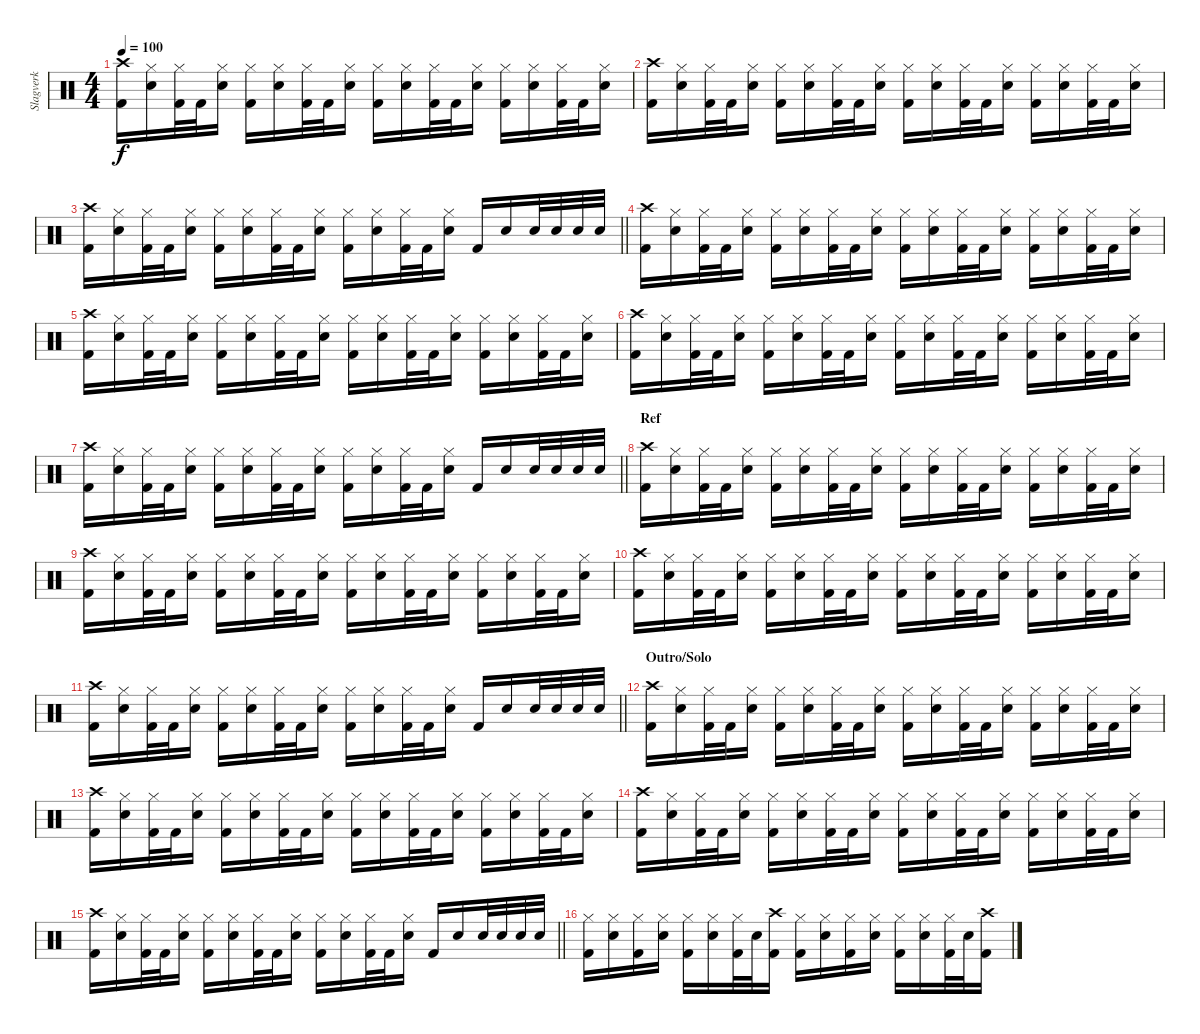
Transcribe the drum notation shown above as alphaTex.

\track ("Slagverk" "Slagverk") {instrument percussion}
\staff {score}
\articulation defaults
\ts (4 4)
\tempo 100
\clef neutral
\ks c
("Kick (hit) 2" "Crash high (hit)").16{dy f} ("Snare (hit) 2" "Hi-Hat (closed)").16 ("Kick (hit) 2" "Hi-Hat (closed)").32 "Kick (hit) 2".32 ("Snare (hit) 2" "Hi-Hat (closed)").16 ("Kick (hit) 2" "Hi-Hat (closed)").16 ("Snare (hit) 2" "Hi-Hat (closed)").16 ("Kick (hit) 2" "Hi-Hat (closed)").32 "Kick (hit) 2".32 ("Snare (hit) 2" "Hi-Hat (closed)").16 ("Kick (hit) 2" "Hi-Hat (closed)").16 ("Snare (hit) 2" "Hi-Hat (closed)").16 ("Kick (hit) 2" "Hi-Hat (closed)").32 "Kick (hit) 2".32 ("Snare (hit) 2" "Hi-Hat (closed)").16 ("Kick (hit) 2" "Hi-Hat (closed)").16 ("Snare (hit) 2" "Hi-Hat (closed)").16 ("Kick (hit) 2" "Hi-Hat (closed)").32 "Kick (hit) 2".32 ("Snare (hit) 2" "Hi-Hat (closed)").16 |
("Kick (hit) 2" "Crash high (hit)").16 ("Snare (hit) 2" "Hi-Hat (closed)").16 ("Kick (hit) 2" "Hi-Hat (closed)").32 "Kick (hit) 2".32 ("Snare (hit) 2" "Hi-Hat (closed)").16 ("Kick (hit) 2" "Hi-Hat (closed)").16 ("Snare (hit) 2" "Hi-Hat (closed)").16 ("Kick (hit) 2" "Hi-Hat (closed)").32 "Kick (hit) 2".32 ("Snare (hit) 2" "Hi-Hat (closed)").16 ("Kick (hit) 2" "Hi-Hat (closed)").16 ("Snare (hit) 2" "Hi-Hat (closed)").16 ("Kick (hit) 2" "Hi-Hat (closed)").32 "Kick (hit) 2".32 ("Snare (hit) 2" "Hi-Hat (closed)").16 ("Kick (hit) 2" "Hi-Hat (closed)").16 ("Snare (hit) 2" "Hi-Hat (closed)").16 ("Kick (hit) 2" "Hi-Hat (closed)").32 "Kick (hit) 2".32 ("Snare (hit) 2" "Hi-Hat (closed)").16 |
\barLineRight lightlight
("Kick (hit) 2" "Crash high (hit)").16 ("Snare (hit) 2" "Hi-Hat (closed)").16 ("Kick (hit) 2" "Hi-Hat (closed)").32 "Kick (hit) 2".32 ("Snare (hit) 2" "Hi-Hat (closed)").16 ("Kick (hit) 2" "Hi-Hat (closed)").16 ("Snare (hit) 2" "Hi-Hat (closed)").16 ("Kick (hit) 2" "Hi-Hat (closed)").32 "Kick (hit) 2".32 ("Snare (hit) 2" "Hi-Hat (closed)").16 ("Kick (hit) 2" "Hi-Hat (closed)").16 ("Snare (hit) 2" "Hi-Hat (closed)").16 ("Kick (hit) 2" "Hi-Hat (closed)").32 "Kick (hit) 2".32 ("Snare (hit) 2" "Hi-Hat (closed)").16 "Kick (hit) 2".16 "Snare (hit) 2".16 "Snare (hit) 2".32 "Snare (hit) 2".32 "Snare (hit) 2".32 "Snare (hit) 2".32 |
("Kick (hit) 2" "Crash high (hit)").16 ("Snare (hit) 2" "Hi-Hat (closed)").16 ("Kick (hit) 2" "Hi-Hat (closed)").32 "Kick (hit) 2".32 ("Snare (hit) 2" "Hi-Hat (closed)").16 ("Kick (hit) 2" "Hi-Hat (closed)").16 ("Snare (hit) 2" "Hi-Hat (closed)").16 ("Kick (hit) 2" "Hi-Hat (closed)").32 "Kick (hit) 2".32 ("Snare (hit) 2" "Hi-Hat (closed)").16 ("Kick (hit) 2" "Hi-Hat (closed)").16 ("Snare (hit) 2" "Hi-Hat (closed)").16 ("Kick (hit) 2" "Hi-Hat (closed)").32 "Kick (hit) 2".32 ("Snare (hit) 2" "Hi-Hat (closed)").16 ("Kick (hit) 2" "Hi-Hat (closed)").16 ("Snare (hit) 2" "Hi-Hat (closed)").16 ("Kick (hit) 2" "Hi-Hat (closed)").32 "Kick (hit) 2".32 ("Snare (hit) 2" "Hi-Hat (closed)").16 |
("Kick (hit) 2" "Crash high (hit)").16 ("Snare (hit) 2" "Hi-Hat (closed)").16 ("Kick (hit) 2" "Hi-Hat (closed)").32 "Kick (hit) 2".32 ("Snare (hit) 2" "Hi-Hat (closed)").16 ("Kick (hit) 2" "Hi-Hat (closed)").16 ("Snare (hit) 2" "Hi-Hat (closed)").16 ("Kick (hit) 2" "Hi-Hat (closed)").32 "Kick (hit) 2".32 ("Snare (hit) 2" "Hi-Hat (closed)").16 ("Kick (hit) 2" "Hi-Hat (closed)").16 ("Snare (hit) 2" "Hi-Hat (closed)").16 ("Kick (hit) 2" "Hi-Hat (closed)").32 "Kick (hit) 2".32 ("Snare (hit) 2" "Hi-Hat (closed)").16 ("Kick (hit) 2" "Hi-Hat (closed)").16 ("Snare (hit) 2" "Hi-Hat (closed)").16 ("Kick (hit) 2" "Hi-Hat (closed)").32 "Kick (hit) 2".32 ("Snare (hit) 2" "Hi-Hat (closed)").16 |
("Kick (hit) 2" "Crash high (hit)").16 ("Snare (hit) 2" "Hi-Hat (closed)").16 ("Kick (hit) 2" "Hi-Hat (closed)").32 "Kick (hit) 2".32 ("Snare (hit) 2" "Hi-Hat (closed)").16 ("Kick (hit) 2" "Hi-Hat (closed)").16 ("Snare (hit) 2" "Hi-Hat (closed)").16 ("Kick (hit) 2" "Hi-Hat (closed)").32 "Kick (hit) 2".32 ("Snare (hit) 2" "Hi-Hat (closed)").16 ("Kick (hit) 2" "Hi-Hat (closed)").16 ("Snare (hit) 2" "Hi-Hat (closed)").16 ("Kick (hit) 2" "Hi-Hat (closed)").32 "Kick (hit) 2".32 ("Snare (hit) 2" "Hi-Hat (closed)").16 ("Kick (hit) 2" "Hi-Hat (closed)").16 ("Snare (hit) 2" "Hi-Hat (closed)").16 ("Kick (hit) 2" "Hi-Hat (closed)").32 "Kick (hit) 2".32 ("Snare (hit) 2" "Hi-Hat (closed)").16 |
\barLineRight lightlight
("Kick (hit) 2" "Crash high (hit)").16 ("Snare (hit) 2" "Hi-Hat (closed)").16 ("Kick (hit) 2" "Hi-Hat (closed)").32 "Kick (hit) 2".32 ("Snare (hit) 2" "Hi-Hat (closed)").16 ("Kick (hit) 2" "Hi-Hat (closed)").16 ("Snare (hit) 2" "Hi-Hat (closed)").16 ("Kick (hit) 2" "Hi-Hat (closed)").32 "Kick (hit) 2".32 ("Snare (hit) 2" "Hi-Hat (closed)").16 ("Kick (hit) 2" "Hi-Hat (closed)").16 ("Snare (hit) 2" "Hi-Hat (closed)").16 ("Kick (hit) 2" "Hi-Hat (closed)").32 "Kick (hit) 2".32 ("Snare (hit) 2" "Hi-Hat (closed)").16 "Kick (hit) 2".16 "Snare (hit) 2".16 "Snare (hit) 2".32 "Snare (hit) 2".32 "Snare (hit) 2".32 "Snare (hit) 2".32 |
\section ("" "Ref")
("Kick (hit) 2" "Crash high (hit)").16 ("Snare (hit) 2" "Hi-Hat (closed)").16 ("Kick (hit) 2" "Hi-Hat (closed)").32 "Kick (hit) 2".32 ("Snare (hit) 2" "Hi-Hat (closed)").16 ("Kick (hit) 2" "Hi-Hat (closed)").16 ("Snare (hit) 2" "Hi-Hat (closed)").16 ("Kick (hit) 2" "Hi-Hat (closed)").32 "Kick (hit) 2".32 ("Snare (hit) 2" "Hi-Hat (closed)").16 ("Kick (hit) 2" "Hi-Hat (closed)").16 ("Snare (hit) 2" "Hi-Hat (closed)").16 ("Kick (hit) 2" "Hi-Hat (closed)").32 "Kick (hit) 2".32 ("Snare (hit) 2" "Hi-Hat (closed)").16 ("Kick (hit) 2" "Hi-Hat (closed)").16 ("Snare (hit) 2" "Hi-Hat (closed)").16 ("Kick (hit) 2" "Hi-Hat (closed)").32 "Kick (hit) 2".32 ("Snare (hit) 2" "Hi-Hat (closed)").16 |
("Kick (hit) 2" "Crash high (hit)").16 ("Snare (hit) 2" "Hi-Hat (closed)").16 ("Kick (hit) 2" "Hi-Hat (closed)").32 "Kick (hit) 2".32 ("Snare (hit) 2" "Hi-Hat (closed)").16 ("Kick (hit) 2" "Hi-Hat (closed)").16 ("Snare (hit) 2" "Hi-Hat (closed)").16 ("Kick (hit) 2" "Hi-Hat (closed)").32 "Kick (hit) 2".32 ("Snare (hit) 2" "Hi-Hat (closed)").16 ("Kick (hit) 2" "Hi-Hat (closed)").16 ("Snare (hit) 2" "Hi-Hat (closed)").16 ("Kick (hit) 2" "Hi-Hat (closed)").32 "Kick (hit) 2".32 ("Snare (hit) 2" "Hi-Hat (closed)").16 ("Kick (hit) 2" "Hi-Hat (closed)").16 ("Snare (hit) 2" "Hi-Hat (closed)").16 ("Kick (hit) 2" "Hi-Hat (closed)").32 "Kick (hit) 2".32 ("Snare (hit) 2" "Hi-Hat (closed)").16 |
("Kick (hit) 2" "Crash high (hit)").16 ("Snare (hit) 2" "Hi-Hat (closed)").16 ("Kick (hit) 2" "Hi-Hat (closed)").32 "Kick (hit) 2".32 ("Snare (hit) 2" "Hi-Hat (closed)").16 ("Kick (hit) 2" "Hi-Hat (closed)").16 ("Snare (hit) 2" "Hi-Hat (closed)").16 ("Kick (hit) 2" "Hi-Hat (closed)").32 "Kick (hit) 2".32 ("Snare (hit) 2" "Hi-Hat (closed)").16 ("Kick (hit) 2" "Hi-Hat (closed)").16 ("Snare (hit) 2" "Hi-Hat (closed)").16 ("Kick (hit) 2" "Hi-Hat (closed)").32 "Kick (hit) 2".32 ("Snare (hit) 2" "Hi-Hat (closed)").16 ("Kick (hit) 2" "Hi-Hat (closed)").16 ("Snare (hit) 2" "Hi-Hat (closed)").16 ("Kick (hit) 2" "Hi-Hat (closed)").32 "Kick (hit) 2".32 ("Snare (hit) 2" "Hi-Hat (closed)").16 |
\barLineRight lightlight
("Kick (hit) 2" "Crash high (hit)").16 ("Snare (hit) 2" "Hi-Hat (closed)").16 ("Kick (hit) 2" "Hi-Hat (closed)").32 "Kick (hit) 2".32 ("Snare (hit) 2" "Hi-Hat (closed)").16 ("Kick (hit) 2" "Hi-Hat (closed)").16 ("Snare (hit) 2" "Hi-Hat (closed)").16 ("Kick (hit) 2" "Hi-Hat (closed)").32 "Kick (hit) 2".32 ("Snare (hit) 2" "Hi-Hat (closed)").16 ("Kick (hit) 2" "Hi-Hat (closed)").16 ("Snare (hit) 2" "Hi-Hat (closed)").16 ("Kick (hit) 2" "Hi-Hat (closed)").32 "Kick (hit) 2".32 ("Snare (hit) 2" "Hi-Hat (closed)").16 "Kick (hit) 2".16 "Snare (hit) 2".16 "Snare (hit) 2".32 "Snare (hit) 2".32 "Snare (hit) 2".32 "Snare (hit) 2".32 |
\section ("" "Outro/Solo")
("Kick (hit) 2" "Crash high (hit)").16 ("Snare (hit) 2" "Hi-Hat (closed)").16 ("Kick (hit) 2" "Hi-Hat (closed)").32 "Kick (hit) 2".32 ("Snare (hit) 2" "Hi-Hat (closed)").16 ("Kick (hit) 2" "Hi-Hat (closed)").16 ("Snare (hit) 2" "Hi-Hat (closed)").16 ("Kick (hit) 2" "Hi-Hat (closed)").32 "Kick (hit) 2".32 ("Snare (hit) 2" "Hi-Hat (closed)").16 ("Kick (hit) 2" "Hi-Hat (closed)").16 ("Snare (hit) 2" "Hi-Hat (closed)").16 ("Kick (hit) 2" "Hi-Hat (closed)").32 "Kick (hit) 2".32 ("Snare (hit) 2" "Hi-Hat (closed)").16 ("Kick (hit) 2" "Hi-Hat (closed)").16 ("Snare (hit) 2" "Hi-Hat (closed)").16 ("Kick (hit) 2" "Hi-Hat (closed)").32 "Kick (hit) 2".32 ("Snare (hit) 2" "Hi-Hat (closed)").16 |
("Kick (hit) 2" "Crash high (hit)").16 ("Snare (hit) 2" "Hi-Hat (closed)").16 ("Kick (hit) 2" "Hi-Hat (closed)").32 "Kick (hit) 2".32 ("Snare (hit) 2" "Hi-Hat (closed)").16 ("Kick (hit) 2" "Hi-Hat (closed)").16 ("Snare (hit) 2" "Hi-Hat (closed)").16 ("Kick (hit) 2" "Hi-Hat (closed)").32 "Kick (hit) 2".32 ("Snare (hit) 2" "Hi-Hat (closed)").16 ("Kick (hit) 2" "Hi-Hat (closed)").16 ("Snare (hit) 2" "Hi-Hat (closed)").16 ("Kick (hit) 2" "Hi-Hat (closed)").32 "Kick (hit) 2".32 ("Snare (hit) 2" "Hi-Hat (closed)").16 ("Kick (hit) 2" "Hi-Hat (closed)").16 ("Snare (hit) 2" "Hi-Hat (closed)").16 ("Kick (hit) 2" "Hi-Hat (closed)").32 "Kick (hit) 2".32 ("Snare (hit) 2" "Hi-Hat (closed)").16 |
("Kick (hit) 2" "Crash high (hit)").16 ("Snare (hit) 2" "Hi-Hat (closed)").16 ("Kick (hit) 2" "Hi-Hat (closed)").32 "Kick (hit) 2".32 ("Snare (hit) 2" "Hi-Hat (closed)").16 ("Kick (hit) 2" "Hi-Hat (closed)").16 ("Snare (hit) 2" "Hi-Hat (closed)").16 ("Kick (hit) 2" "Hi-Hat (closed)").32 "Kick (hit) 2".32 ("Snare (hit) 2" "Hi-Hat (closed)").16 ("Kick (hit) 2" "Hi-Hat (closed)").16 ("Snare (hit) 2" "Hi-Hat (closed)").16 ("Kick (hit) 2" "Hi-Hat (closed)").32 "Kick (hit) 2".32 ("Snare (hit) 2" "Hi-Hat (closed)").16 ("Kick (hit) 2" "Hi-Hat (closed)").16 ("Snare (hit) 2" "Hi-Hat (closed)").16 ("Kick (hit) 2" "Hi-Hat (closed)").32 "Kick (hit) 2".32 ("Snare (hit) 2" "Hi-Hat (closed)").16 |
\barLineRight lightlight
("Kick (hit) 2" "Crash high (hit)").16 ("Snare (hit) 2" "Hi-Hat (closed)").16 ("Kick (hit) 2" "Hi-Hat (closed)").32 "Kick (hit) 2".32 ("Snare (hit) 2" "Hi-Hat (closed)").16 ("Kick (hit) 2" "Hi-Hat (closed)").16 ("Snare (hit) 2" "Hi-Hat (closed)").16 ("Kick (hit) 2" "Hi-Hat (closed)").32 "Kick (hit) 2".32 ("Snare (hit) 2" "Hi-Hat (closed)").16 ("Kick (hit) 2" "Hi-Hat (closed)").16 ("Snare (hit) 2" "Hi-Hat (closed)").16 ("Kick (hit) 2" "Hi-Hat (closed)").32 "Kick (hit) 2".32 ("Snare (hit) 2" "Hi-Hat (closed)").16 "Kick (hit) 2".16 "Snare (hit) 2".16 "Snare (hit) 2".32 "Snare (hit) 2".32 "Snare (hit) 2".32 "Snare (hit) 2".32 |
("Kick (hit) 2" "Hi-Hat (closed)").16 ("Snare (hit) 2" "Hi-Hat (closed)").16 ("Kick (hit) 2" "Hi-Hat (closed)").16 ("Snare (hit) 2" "Hi-Hat (closed)").16 ("Kick (hit) 2" "Hi-Hat (closed)").16 ("Snare (hit) 2" "Hi-Hat (closed)").16 ("Kick (hit) 2" "Hi-Hat (closed)").32 "Snare (hit) 2".32 ("Kick (hit) 2" "Crash high (hit)").16 ("Kick (hit) 2" "Hi-Hat (closed)").16 ("Snare (hit) 2" "Hi-Hat (closed)").16 ("Kick (hit) 2" "Hi-Hat (closed)").16 ("Snare (hit) 2" "Hi-Hat (closed)").16 ("Kick (hit) 2" "Hi-Hat (closed)").16 ("Snare (hit) 2" "Hi-Hat (closed)").16 ("Kick (hit) 2" "Hi-Hat (closed)").32 "Snare (hit) 2".32 ("Kick (hit) 2" "Crash high (hit)").16
